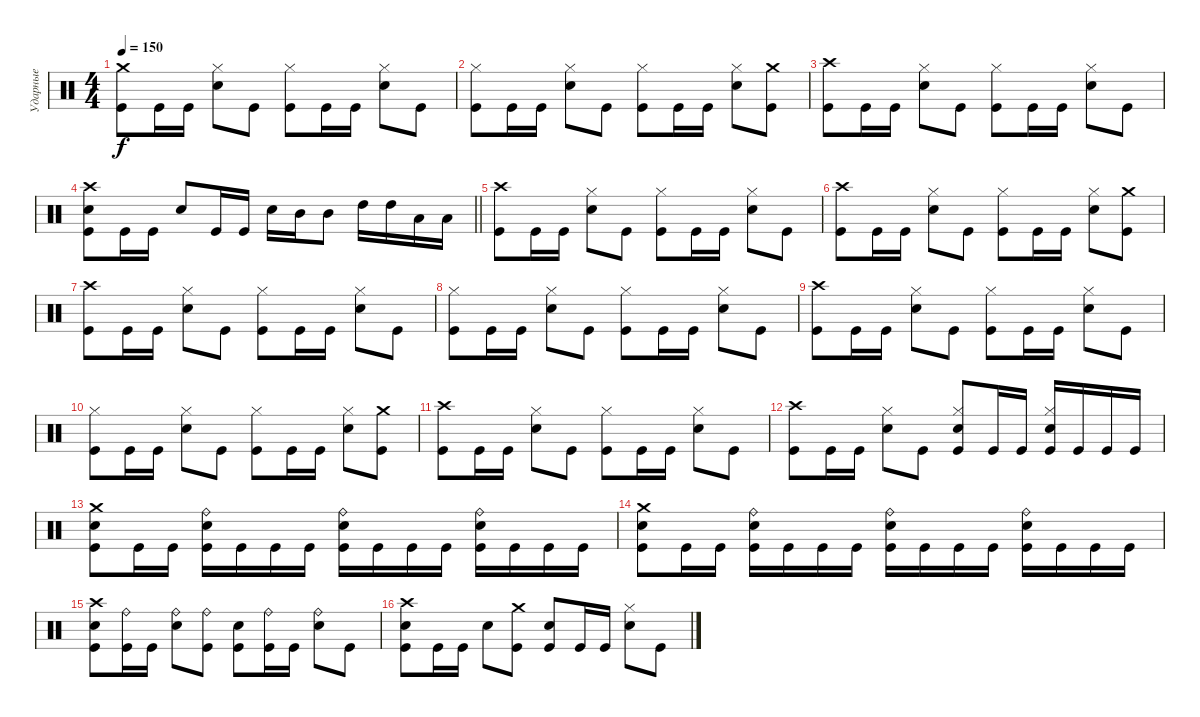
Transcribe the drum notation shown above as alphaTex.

\track ("Ударные" "Ударные") {instrument percussion}
\staff {score}
\articulation defaults
\ts (4 4)
\tempo 150
\clef neutral
\ks c
("Crash medium (hit)" "Kick (hit)").8{dy f} "Kick (hit)".16 "Kick (hit)".16 ("Hi-Hat (closed)" "Electric Snare (hit)").8 "Kick (hit)".8 ("Hi-Hat (closed)" "Kick (hit)").8 "Kick (hit)".16 "Kick (hit)".16 ("Hi-Hat (closed)" "Electric Snare (hit)").8 "Kick (hit)".8 |
("Hi-Hat (closed)" "Kick (hit)").8 "Kick (hit)".16 "Kick (hit)".16 ("Hi-Hat (closed)" "Electric Snare (hit)").8 "Kick (hit)".8 ("Hi-Hat (closed)" "Kick (hit)").8 "Kick (hit)".16 "Kick (hit)".16 ("Hi-Hat (closed)" "Electric Snare (hit)").8 ("Crash medium (hit)" "Kick (hit)").8 |
("Crash high (hit)" "Kick (hit)").8 "Kick (hit)".16 "Kick (hit)".16 ("Hi-Hat (closed)" "Electric Snare (hit)").8 "Kick (hit)".8 ("Hi-Hat (closed)" "Kick (hit)").8 "Kick (hit)".16 "Kick (hit)".16 ("Hi-Hat (closed)" "Electric Snare (hit)").8 "Kick (hit)".8 |
\barLineRight lightlight
("Crash high (hit)" "Electric Snare (hit)" "Kick (hit)").8 "Kick (hit)".16 "Kick (hit)".16 "Electric Snare (hit)".8 "Kick (hit)".16 "Kick (hit)".16 "Electric Snare (hit)".16 "Mid Tom (hit)".16 "Mid Tom (hit)".8 "High Tom (hit)".16 "High Tom (hit)".16 "Low Tom (hit)".16 "Low Tom (hit)".16 |
("Crash high (hit)" "Kick (hit)").8 "Kick (hit)".16 "Kick (hit)".16 ("Hi-Hat (closed)" "Electric Snare (hit)").8 "Kick (hit)".8 ("Hi-Hat (closed)" "Kick (hit)").8 "Kick (hit)".16 "Kick (hit)".16 ("Hi-Hat (closed)" "Electric Snare (hit)").8 "Kick (hit)".8 |
("Crash high (hit)" "Kick (hit)").8 "Kick (hit)".16 "Kick (hit)".16 ("Hi-Hat (closed)" "Electric Snare (hit)").8 "Kick (hit)".8 ("Hi-Hat (closed)" "Kick (hit)").8 "Kick (hit)".16 "Kick (hit)".16 ("Hi-Hat (closed)" "Electric Snare (hit)").8 ("Crash medium (hit)" "Kick (hit)").8 |
("Crash high (hit)" "Kick (hit)").8 "Kick (hit)".16 "Kick (hit)".16 ("Hi-Hat (closed)" "Electric Snare (hit)").8 "Kick (hit)".8 ("Hi-Hat (closed)" "Kick (hit)").8 "Kick (hit)".16 "Kick (hit)".16 ("Hi-Hat (closed)" "Electric Snare (hit)").8 "Kick (hit)".8 |
("Hi-Hat (closed)" "Kick (hit)").8 "Kick (hit)".16 "Kick (hit)".16 ("Hi-Hat (closed)" "Electric Snare (hit)").8 "Kick (hit)".8 ("Hi-Hat (closed)" "Kick (hit)").8 "Kick (hit)".16 "Kick (hit)".16 ("Hi-Hat (closed)" "Electric Snare (hit)").8 "Kick (hit)".8 |
("Crash high (hit)" "Kick (hit)").8 "Kick (hit)".16 "Kick (hit)".16 ("Hi-Hat (closed)" "Electric Snare (hit)").8 "Kick (hit)".8 ("Hi-Hat (closed)" "Kick (hit)").8 "Kick (hit)".16 "Kick (hit)".16 ("Hi-Hat (closed)" "Electric Snare (hit)").8 "Kick (hit)".8 |
("Hi-Hat (closed)" "Kick (hit)").8 "Kick (hit)".16 "Kick (hit)".16 ("Hi-Hat (closed)" "Electric Snare (hit)").8 "Kick (hit)".8 ("Hi-Hat (closed)" "Kick (hit)").8 "Kick (hit)".16 "Kick (hit)".16 ("Hi-Hat (closed)" "Electric Snare (hit)").8 ("Crash medium (hit)" "Kick (hit)").8 |
("Crash high (hit)" "Kick (hit)").8 "Kick (hit)".16 "Kick (hit)".16 ("Hi-Hat (closed)" "Electric Snare (hit)").8 "Kick (hit)".8 ("Hi-Hat (closed)" "Kick (hit)").8 "Kick (hit)".16 "Kick (hit)".16 ("Hi-Hat (closed)" "Electric Snare (hit)").8 "Kick (hit)".8 |
("Crash high (hit)" "Kick (hit)").8 "Kick (hit)".16 "Kick (hit)".16 ("Hi-Hat (closed)" "Electric Snare (hit)").8 "Kick (hit)".8 ("Hi-Hat (closed)" "Electric Snare (hit)" "Kick (hit)").8 "Kick (hit)".16 "Kick (hit)".16 ("Hi-Hat (closed)" "Electric Snare (hit)" "Kick (hit)").16 "Kick (hit)".16 "Kick (hit)".16 "Kick (hit)".16 |
("Crash medium (hit)" "Electric Snare (hit)" "Kick (hit)").8 "Kick (hit)".16 "Kick (hit)".16 ("Ride (bell)" "Electric Snare (hit)" "Kick (hit)").16 "Kick (hit)".16 "Kick (hit)".16 "Kick (hit)".16 ("Ride (bell)" "Electric Snare (hit)" "Kick (hit)").16 "Kick (hit)".16 "Kick (hit)".16 "Kick (hit)".16 ("Ride (bell)" "Electric Snare (hit)" "Kick (hit)").16 "Kick (hit)".16 "Kick (hit)".16 "Kick (hit)".16 |
("Crash medium (hit)" "Electric Snare (hit)" "Kick (hit)").8 "Kick (hit)".16 "Kick (hit)".16 ("Ride (bell)" "Electric Snare (hit)" "Kick (hit)").16 "Kick (hit)".16 "Kick (hit)".16 "Kick (hit)".16 ("Ride (bell)" "Electric Snare (hit)" "Kick (hit)").16 "Kick (hit)".16 "Kick (hit)".16 "Kick (hit)".16 ("Ride (bell)" "Electric Snare (hit)" "Kick (hit)").16 "Kick (hit)".16 "Kick (hit)".16 "Kick (hit)".16 |
("Crash high (hit)" "Electric Snare (hit)" "Kick (hit)").8 ("Ride (bell)" "Kick (hit)").16 "Kick (hit)".16 ("Ride (bell)" "Electric Snare (hit)").8 ("Ride (bell)" "Kick (hit)").8 ("Electric Snare (hit)" "Kick (hit)").8 ("Ride (bell)" "Kick (hit)").16 "Kick (hit)".16 ("Ride (bell)" "Electric Snare (hit)").8 "Kick (hit)".8 |
("Crash high (hit)" "Electric Snare (hit)" "Kick (hit)").8 "Kick (hit)".16 "Kick (hit)".16 "Electric Snare (hit)".8 ("Crash medium (hit)" "Kick (hit)").8 ("Electric Snare (hit)" "Kick (hit)").8 "Kick (hit)".16 "Kick (hit)".16 ("Hi-Hat (closed)" "Electric Snare (hit)").8 "Kick (hit)".8
